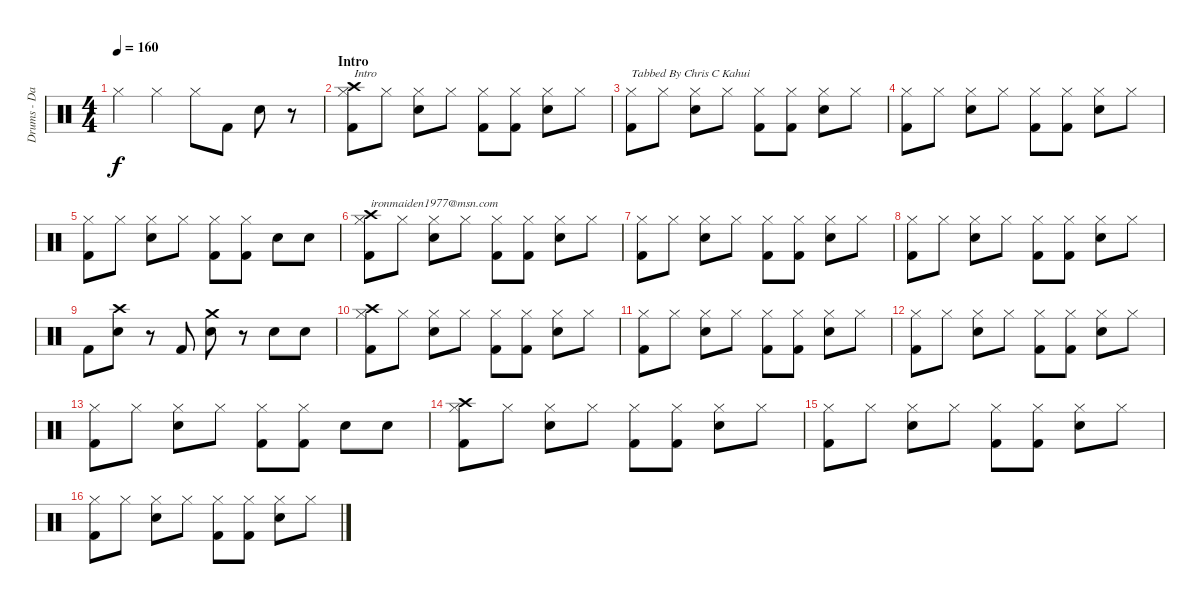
\track ("Drums - Daniel Zimmermann" "Drums - Da") {instrument percussion}
\staff {score}
\articulation defaults
\ts (4 4)
\tempo 160
\clef neutral
\ks c "Hi-Hat (closed)".4{dy f} "Hi-Hat (closed)".4 "Hi-Hat (closed)".8 "Kick (hit) 2".8 "Snare (hit) 2".8
r.8 |
\section ("" "Intro")
("Hi-Hat (closed)" "Kick (hit) 2" "Crash high (hit)").8{txt "Intro"} "Hi-Hat (closed)".8 ("Hi-Hat (closed)" "Snare (hit) 2").8 "Hi-Hat (closed)".8 ("Hi-Hat (closed)" "Kick (hit) 2").8 ("Hi-Hat (closed)" "Kick (hit) 2").8 ("Hi-Hat (closed)" "Snare (hit) 2").8 "Hi-Hat (closed)".8 |
("Hi-Hat (closed)" "Kick (hit) 2").8{txt "Tabbed By Chris C Kahui"} "Hi-Hat (closed)".8 ("Hi-Hat (closed)" "Snare (hit) 2").8 "Hi-Hat (closed)".8 ("Hi-Hat (closed)" "Kick (hit) 2").8 ("Hi-Hat (closed)" "Kick (hit) 2").8 ("Hi-Hat (closed)" "Snare (hit) 2").8 "Hi-Hat (closed)".8 |
("Hi-Hat (closed)" "Kick (hit) 2").8 "Hi-Hat (closed)".8 ("Hi-Hat (closed)" "Snare (hit) 2").8 "Hi-Hat (closed)".8 ("Hi-Hat (closed)" "Kick (hit) 2").8 ("Hi-Hat (closed)" "Kick (hit) 2").8 ("Hi-Hat (closed)" "Snare (hit) 2").8 "Hi-Hat (closed)".8 |
("Hi-Hat (closed)" "Kick (hit) 2").8 "Hi-Hat (closed)".8 ("Hi-Hat (closed)" "Snare (hit) 2").8 "Hi-Hat (closed)".8 ("Hi-Hat (closed)" "Kick (hit) 2").8 ("Hi-Hat (closed)" "Kick (hit) 2").8 "Snare (hit) 2".8 "Snare (hit) 2".8 |
("Hi-Hat (closed)" "Kick (hit) 2" "Crash high (hit)").8{txt "ironmaiden1977@msn.com"} "Hi-Hat (closed)".8 ("Hi-Hat (closed)" "Snare (hit) 2").8 "Hi-Hat (closed)".8 ("Hi-Hat (closed)" "Kick (hit) 2").8 ("Hi-Hat (closed)" "Kick (hit) 2").8 ("Hi-Hat (closed)" "Snare (hit) 2").8 "Hi-Hat (closed)".8 |
("Hi-Hat (closed)" "Kick (hit) 2").8 "Hi-Hat (closed)".8 ("Hi-Hat (closed)" "Snare (hit) 2").8 "Hi-Hat (closed)".8 ("Hi-Hat (closed)" "Kick (hit) 2").8 ("Hi-Hat (closed)" "Kick (hit) 2").8 ("Hi-Hat (closed)" "Snare (hit) 2").8 "Hi-Hat (closed)".8 |
("Hi-Hat (closed)" "Kick (hit) 2").8 "Hi-Hat (closed)".8 ("Hi-Hat (closed)" "Snare (hit) 2").8 "Hi-Hat (closed)".8 ("Hi-Hat (closed)" "Kick (hit) 2").8 ("Hi-Hat (closed)" "Kick (hit) 2").8 ("Hi-Hat (closed)" "Snare (hit) 2").8 "Hi-Hat (closed)".8 |
"Kick (hit) 2".8 ("Snare (hit) 2" "Crash high (hit)").8 r.8 "Kick (hit) 2".8 ("Snare (hit) 2" "Crash medium (hit)").8 r.8 "Snare (hit) 2".8 "Snare (hit) 2".8 |
("Hi-Hat (closed)" "Kick (hit) 2" "Crash high (hit)").8 "Hi-Hat (closed)".8 ("Hi-Hat (closed)" "Snare (hit) 2").8 "Hi-Hat (closed)".8 ("Hi-Hat (closed)" "Kick (hit) 2").8 ("Hi-Hat (closed)" "Kick (hit) 2").8 ("Hi-Hat (closed)" "Snare (hit) 2").8 "Hi-Hat (closed)".8 |
("Hi-Hat (closed)" "Kick (hit) 2").8 "Hi-Hat (closed)".8 ("Hi-Hat (closed)" "Snare (hit) 2").8 "Hi-Hat (closed)".8 ("Hi-Hat (closed)" "Kick (hit) 2").8 ("Hi-Hat (closed)" "Kick (hit) 2").8 ("Hi-Hat (closed)" "Snare (hit) 2").8 "Hi-Hat (closed)".8 |
("Hi-Hat (closed)" "Kick (hit) 2").8 "Hi-Hat (closed)".8 ("Hi-Hat (closed)" "Snare (hit) 2").8 "Hi-Hat (closed)".8 ("Hi-Hat (closed)" "Kick (hit) 2").8 ("Hi-Hat (closed)" "Kick (hit) 2").8 ("Hi-Hat (closed)" "Snare (hit) 2").8 "Hi-Hat (closed)".8 |
("Hi-Hat (closed)" "Kick (hit) 2").8 "Hi-Hat (closed)".8 ("Hi-Hat (closed)" "Snare (hit) 2").8 "Hi-Hat (closed)".8 ("Hi-Hat (closed)" "Kick (hit) 2").8 ("Hi-Hat (closed)" "Kick (hit) 2").8 "Snare (hit) 2".8 "Snare (hit) 2".8 |
("Hi-Hat (closed)" "Kick (hit) 2" "Crash high (hit)").8 "Hi-Hat (closed)".8 ("Hi-Hat (closed)" "Snare (hit) 2").8 "Hi-Hat (closed)".8 ("Hi-Hat (closed)" "Kick (hit) 2").8 ("Hi-Hat (closed)" "Kick (hit) 2").8 ("Hi-Hat (closed)" "Snare (hit) 2").8 "Hi-Hat (closed)".8 |
("Hi-Hat (closed)" "Kick (hit) 2").8 "Hi-Hat (closed)".8 ("Hi-Hat (closed)" "Snare (hit) 2").8 "Hi-Hat (closed)".8 ("Hi-Hat (closed)" "Kick (hit) 2").8 ("Hi-Hat (closed)" "Kick (hit) 2").8 ("Hi-Hat (closed)" "Snare (hit) 2").8 "Hi-Hat (closed)".8 |
("Hi-Hat (closed)" "Kick (hit) 2").8 "Hi-Hat (closed)".8 ("Hi-Hat (closed)" "Snare (hit) 2").8 "Hi-Hat (closed)".8 ("Hi-Hat (closed)" "Kick (hit) 2").8 ("Hi-Hat (closed)" "Kick (hit) 2").8 ("Hi-Hat (closed)" "Snare (hit) 2").8 "Hi-Hat (closed)".8
